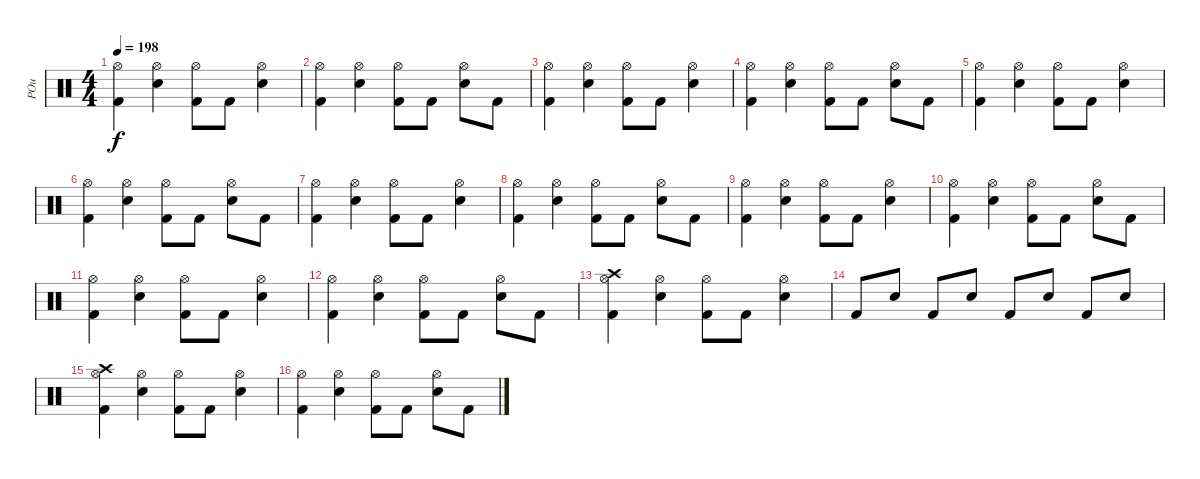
\track ("POu" "POu") {instrument percussion}
\staff {score}
\articulation defaults
\ts (4 4)
\tempo 198
\clef neutral
\ks c
("Kick (hit) 2" "Hi-Hat (open)").4{dy f} ("Electric Snare (hit)" "Hi-Hat (open)").4 ("Kick (hit) 2" "Hi-Hat (open)").8 "Kick (hit) 2".8 ("Electric Snare (hit)" "Hi-Hat (open)").4 |
("Kick (hit) 2" "Hi-Hat (open)").4 ("Electric Snare (hit)" "Hi-Hat (open)").4 ("Kick (hit) 2" "Hi-Hat (open)").8 "Kick (hit) 2".8 ("Electric Snare (hit)" "Hi-Hat (open)").8 "Kick (hit) 2".8 |
("Kick (hit) 2" "Hi-Hat (open)").4 ("Electric Snare (hit)" "Hi-Hat (open)").4 ("Kick (hit) 2" "Hi-Hat (open)").8 "Kick (hit) 2".8 ("Electric Snare (hit)" "Hi-Hat (open)").4 |
("Kick (hit) 2" "Hi-Hat (open)").4 ("Electric Snare (hit)" "Hi-Hat (open)").4 ("Kick (hit) 2" "Hi-Hat (open)").8 "Kick (hit) 2".8 ("Electric Snare (hit)" "Hi-Hat (open)").8 "Kick (hit) 2".8 |
("Kick (hit) 2" "Hi-Hat (open)").4 ("Electric Snare (hit)" "Hi-Hat (open)").4 ("Kick (hit) 2" "Hi-Hat (open)").8 "Kick (hit) 2".8 ("Electric Snare (hit)" "Hi-Hat (open)").4 |
("Kick (hit) 2" "Hi-Hat (open)").4 ("Electric Snare (hit)" "Hi-Hat (open)").4 ("Kick (hit) 2" "Hi-Hat (open)").8 "Kick (hit) 2".8 ("Electric Snare (hit)" "Hi-Hat (open)").8 "Kick (hit) 2".8 |
("Kick (hit) 2" "Hi-Hat (open)").4 ("Electric Snare (hit)" "Hi-Hat (open)").4 ("Kick (hit) 2" "Hi-Hat (open)").8 "Kick (hit) 2".8 ("Electric Snare (hit)" "Hi-Hat (open)").4 |
("Kick (hit) 2" "Hi-Hat (open)").4 ("Electric Snare (hit)" "Hi-Hat (open)").4 ("Kick (hit) 2" "Hi-Hat (open)").8 "Kick (hit) 2".8 ("Electric Snare (hit)" "Hi-Hat (open)").8 "Kick (hit) 2".8 |
("Kick (hit) 2" "Hi-Hat (open)").4 ("Electric Snare (hit)" "Hi-Hat (open)").4 ("Kick (hit) 2" "Hi-Hat (open)").8 "Kick (hit) 2".8 ("Electric Snare (hit)" "Hi-Hat (open)").4 |
("Kick (hit) 2" "Hi-Hat (open)").4 ("Electric Snare (hit)" "Hi-Hat (open)").4 ("Kick (hit) 2" "Hi-Hat (open)").8 "Kick (hit) 2".8 ("Electric Snare (hit)" "Hi-Hat (open)").8 "Kick (hit) 2".8 |
("Kick (hit) 2" "Hi-Hat (open)").4 ("Electric Snare (hit)" "Hi-Hat (open)").4 ("Kick (hit) 2" "Hi-Hat (open)").8 "Kick (hit) 2".8 ("Electric Snare (hit)" "Hi-Hat (open)").4 |
("Kick (hit) 2" "Hi-Hat (open)").4 ("Electric Snare (hit)" "Hi-Hat (open)").4 ("Kick (hit) 2" "Hi-Hat (open)").8 "Kick (hit) 2".8 ("Electric Snare (hit)" "Hi-Hat (open)").8 "Kick (hit) 2".8 |
("Crash high (hit)" "Kick (hit) 2" "Hi-Hat (open)").4 ("Electric Snare (hit)" "Hi-Hat (open)").4 ("Kick (hit) 2" "Hi-Hat (open)").8 "Kick (hit) 2".8 ("Electric Snare (hit)" "Hi-Hat (open)").4 |
"Kick (hit) 2".8 "Electric Snare (hit)".8 "Kick (hit) 2".8 "Electric Snare (hit)".8 "Kick (hit) 2".8 "Electric Snare (hit)".8 "Kick (hit) 2".8 "Electric Snare (hit)".8 |
("Crash high (hit)" "Kick (hit) 2" "Hi-Hat (open)").4 ("Electric Snare (hit)" "Hi-Hat (open)").4 ("Kick (hit) 2" "Hi-Hat (open)").8 "Kick (hit) 2".8 ("Electric Snare (hit)" "Hi-Hat (open)").4 |
("Kick (hit) 2" "Hi-Hat (open)").4 ("Electric Snare (hit)" "Hi-Hat (open)").4 ("Kick (hit) 2" "Hi-Hat (open)").8 "Kick (hit) 2".8 ("Electric Snare (hit)" "Hi-Hat (open)").8 "Kick (hit) 2".8
